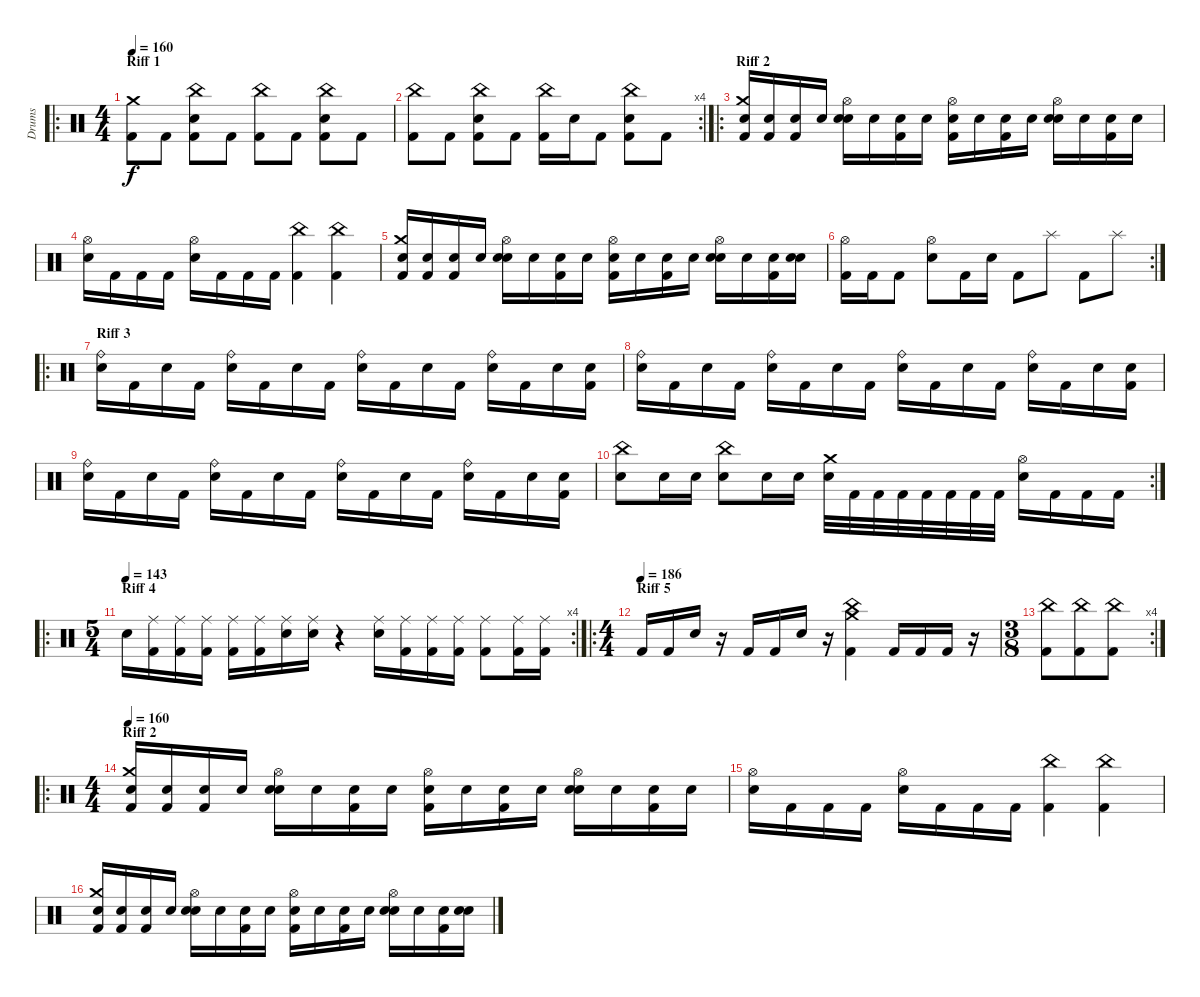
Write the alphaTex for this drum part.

\track ("Drums" "Drums") {instrument percussion}
\staff {score}
\articulation defaults
\ro
\ts (4 4)
\section ("" "Riff 1")
\tempo 160
\clef neutral
\ks c
("Kick (hit) 2" "Crash medium (hit)").8{dy f} "Kick (hit) 2".8 ("Kick (hit) 2" "Snare (hit) 2" "China (hit)").8 "Kick (hit) 2".8 ("Kick (hit) 2" "China (hit)").8 "Kick (hit) 2".8 ("Kick (hit) 2" "Snare (hit) 2" "China (hit)").8 "Kick (hit) 2".8 |
\rc 4
("Kick (hit) 2" "China (hit)").8 "Kick (hit) 2".8 ("Kick (hit) 2" "Snare (hit) 2" "China (hit)").8 "Kick (hit) 2".8 ("Kick (hit) 2" "China (hit)").16 "Snare (hit) 2".16 "Kick (hit) 2".8 ("Kick (hit) 2" "Snare (hit) 2" "China (hit)").8 "Kick (hit) 2".8 |
\ro
\section ("" "Riff 2")
("Snare (hit)" "Kick (hit) 2" "Crash medium (hit)").16 ("Snare (hit)" "Kick (hit) 2").16 ("Snare (hit)" "Kick (hit) 2").16 "Snare (hit)".16 ("Snare (hit)" "Snare (hit) 2" "Hi-Hat (open)").16 "Snare (hit)".16 ("Snare (hit)" "Kick (hit) 2").16 "Snare (hit)".16 ("Snare (hit)" "Kick (hit) 2" "Hi-Hat (open)").16 "Snare (hit)".16 ("Snare (hit)" "Kick (hit) 2").16 "Snare (hit)".16 ("Snare (hit)" "Snare (hit) 2" "Hi-Hat (open)").16 "Snare (hit)".16 ("Snare (hit)" "Kick (hit) 2").16 "Snare (hit)".16 |
("Snare (hit) 2" "Hi-Hat (open)").16 "Kick (hit) 2".16 "Kick (hit) 2".16 "Kick (hit) 2".16 ("Snare (hit) 2" "Hi-Hat (open)").16 "Kick (hit) 2".16 "Kick (hit) 2".16 "Kick (hit) 2".16 ("Kick (hit) 2" "China (hit)").4 ("Kick (hit) 2" "China (hit)").4 |
("Snare (hit)" "Kick (hit) 2" "Crash medium (hit)").16 ("Snare (hit)" "Kick (hit) 2").16 ("Snare (hit)" "Kick (hit) 2").16 "Snare (hit)".16 ("Snare (hit)" "Snare (hit) 2" "Hi-Hat (open)").16 "Snare (hit)".16 ("Snare (hit)" "Kick (hit) 2").16 "Snare (hit)".16 ("Snare (hit)" "Kick (hit) 2" "Hi-Hat (open)").16 "Snare (hit)".16 ("Snare (hit)" "Kick (hit) 2").16 "Snare (hit)".16 ("Snare (hit)" "Snare (hit) 2" "Hi-Hat (open)").16 "Snare (hit)".16 ("Snare (hit)" "Kick (hit) 2").16 ("Snare (hit)" "Snare (hit) 2").16 |
\rc 2
("Kick (hit) 2" "Hi-Hat (open)").16 "Kick (hit) 2".16 "Kick (hit) 2".8 ("Snare (hit) 2" "Hi-Hat (open)").8 "Kick (hit) 2".16 "Snare (hit) 2".16 "Kick (hit) 2".8 "Splash (hit)".8 "Kick (hit) 2".8 "Splash (hit)".8 |
\ro
\section ("" "Riff 3")
("Ride (bell)" "Snare (hit) 2").16 "Kick (hit) 2".16 "Snare (hit) 2".16 "Kick (hit) 2".16 ("Ride (bell)" "Snare (hit) 2").16 "Kick (hit) 2".16 "Snare (hit) 2".16 "Kick (hit) 2".16 ("Ride (bell)" "Snare (hit) 2").16 "Kick (hit) 2".16 "Snare (hit) 2".16 "Kick (hit) 2".16 ("Ride (bell)" "Snare (hit) 2").16 "Kick (hit) 2".16 "Snare (hit) 2".16 ("Kick (hit) 2" "Snare (hit) 2").16 |
("Ride (bell)" "Snare (hit) 2").16 "Kick (hit) 2".16 "Snare (hit) 2".16 "Kick (hit) 2".16 ("Ride (bell)" "Snare (hit) 2").16 "Kick (hit) 2".16 "Snare (hit) 2".16 "Kick (hit) 2".16 ("Ride (bell)" "Snare (hit) 2").16 "Kick (hit) 2".16 "Snare (hit) 2".16 "Kick (hit) 2".16 ("Ride (bell)" "Snare (hit) 2").16 "Kick (hit) 2".16 "Snare (hit) 2".16 ("Kick (hit) 2" "Snare (hit) 2").16 |
("Ride (bell)" "Snare (hit) 2").16 "Kick (hit) 2".16 "Snare (hit) 2".16 "Kick (hit) 2".16 ("Ride (bell)" "Snare (hit) 2").16 "Kick (hit) 2".16 "Snare (hit) 2".16 "Kick (hit) 2".16 ("Ride (bell)" "Snare (hit) 2").16 "Kick (hit) 2".16 "Snare (hit) 2".16 "Kick (hit) 2".16 ("Ride (bell)" "Snare (hit) 2").16 "Kick (hit) 2".16 "Snare (hit) 2".16 ("Kick (hit) 2" "Snare (hit) 2").16 |
\rc 2
("China (hit)" "Snare (hit) 2").8 "Snare (hit) 2".16 "Snare (hit) 2".16 ("China (hit)" "Snare (hit) 2").8 "Snare (hit) 2".16 "Snare (hit) 2".16 ("Crash medium (hit)" "Snare (hit) 2").32 "Kick (hit) 2".32 "Kick (hit) 2".32 "Kick (hit) 2".32 "Kick (hit) 2".32 "Kick (hit) 2".32 "Kick (hit) 2".32 "Kick (hit) 2".32 ("Hi-Hat (open)" "Snare (hit) 2").16 "Kick (hit) 2".16 "Kick (hit) 2".16 "Kick (hit) 2".16 |
\ro
\rc 4
\ts (5 4)
\section ("" "Riff 4")
\tempo (143)
"Snare (hit) 2".16 ("Ride (middle)" "Kick (hit) 2").16 ("Ride (middle)" "Kick (hit) 2").16 ("Ride (middle)" "Kick (hit) 2").16 ("Ride (middle)" "Kick (hit) 2").16 ("Ride (middle)" "Kick (hit) 2").16 ("Ride (middle)" "Snare (hit) 2").16 ("Ride (middle)" "Snare (hit) 2").16 r.4 ("Ride (middle)" "Snare (hit) 2").16 ("Ride (middle)" "Kick (hit) 2").16 ("Ride (middle)" "Kick (hit) 2").16 ("Ride (middle)" "Kick (hit) 2").16 ("Ride (middle)" "Kick (hit) 2").8 ("Ride (middle)" "Kick (hit) 2").16 ("Ride (middle)" "Kick (hit) 2").16 |
\ro
\ts (4 4)
\section ("" "Riff 5")
\tempo (186)
"Kick (hit) 2".16 "Kick (hit) 2".16 "Snare (hit) 2".16 r.16 "Kick (hit) 2".16 "Kick (hit) 2".16 "Snare (hit) 2".16 r.16 ("Kick (hit) 2" "China (hit)" "Crash medium (hit)").4 "Kick (hit) 2".16 "Kick (hit) 2".16 "Kick (hit) 2".16 r.16 |
\rc 4
\ts (3 8)
("Kick (hit) 2" "China (hit)").8 ("Kick (hit) 2" "China (hit)").8 ("Kick (hit) 2" "China (hit)").8 |
\ro
\ts (4 4)
\section ("" "Riff 2")
\tempo 160
("Snare (hit)" "Kick (hit) 2" "Crash medium (hit)").16 ("Snare (hit)" "Kick (hit) 2").16 ("Snare (hit)" "Kick (hit) 2").16 "Snare (hit)".16 ("Snare (hit)" "Snare (hit) 2" "Hi-Hat (open)").16 "Snare (hit)".16 ("Snare (hit)" "Kick (hit) 2").16 "Snare (hit)".16 ("Snare (hit)" "Kick (hit) 2" "Hi-Hat (open)").16 "Snare (hit)".16 ("Snare (hit)" "Kick (hit) 2").16 "Snare (hit)".16 ("Snare (hit)" "Snare (hit) 2" "Hi-Hat (open)").16 "Snare (hit)".16 ("Snare (hit)" "Kick (hit) 2").16 "Snare (hit)".16 |
("Snare (hit) 2" "Hi-Hat (open)").16 "Kick (hit) 2".16 "Kick (hit) 2".16 "Kick (hit) 2".16 ("Snare (hit) 2" "Hi-Hat (open)").16 "Kick (hit) 2".16 "Kick (hit) 2".16 "Kick (hit) 2".16 ("Kick (hit) 2" "China (hit)").4 ("Kick (hit) 2" "China (hit)").4 |
("Snare (hit)" "Kick (hit) 2" "Crash medium (hit)").16 ("Snare (hit)" "Kick (hit) 2").16 ("Snare (hit)" "Kick (hit) 2").16 "Snare (hit)".16 ("Snare (hit)" "Snare (hit) 2" "Hi-Hat (open)").16 "Snare (hit)".16 ("Snare (hit)" "Kick (hit) 2").16 "Snare (hit)".16 ("Snare (hit)" "Kick (hit) 2" "Hi-Hat (open)").16 "Snare (hit)".16 ("Snare (hit)" "Kick (hit) 2").16 "Snare (hit)".16 ("Snare (hit)" "Snare (hit) 2" "Hi-Hat (open)").16 "Snare (hit)".16 ("Snare (hit)" "Kick (hit) 2").16 ("Snare (hit)" "Snare (hit) 2").16
